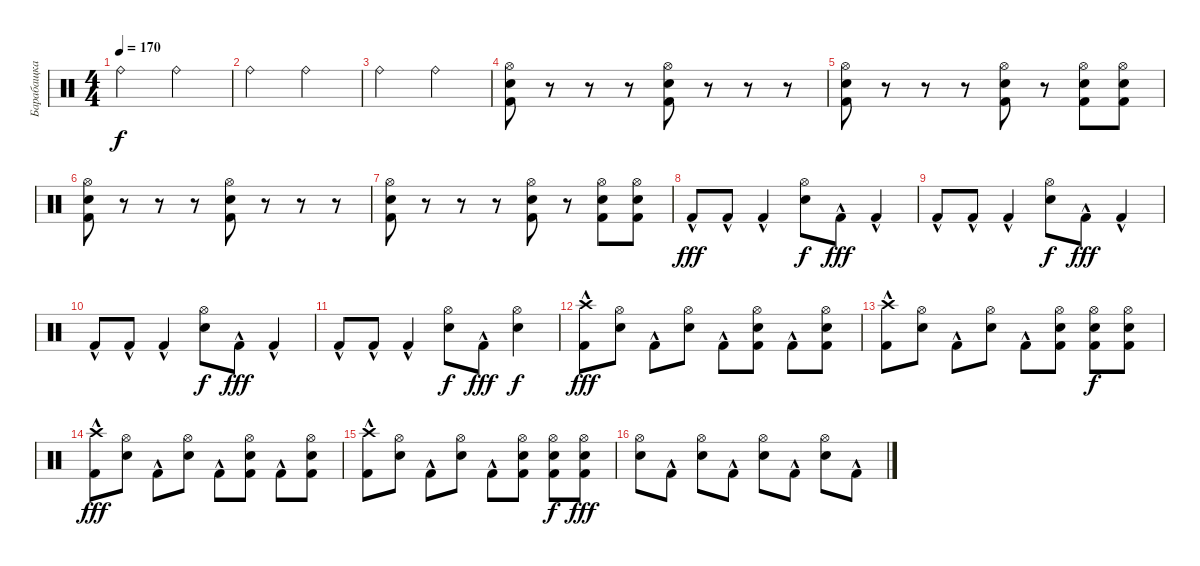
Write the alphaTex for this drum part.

\track ("Барабащка" "Барабащка") {instrument percussion}
\staff {score}
\articulation defaults
\ts (4 4)
\tempo 170
\clef neutral
\ks c "Ride (bell)".2{dy f} "Ride (bell)".2
|
"Ride (bell)".2 "Ride (bell)".2 |
"Ride (bell)".2 "Ride (bell)".2 |
("Hi-Hat (open)" "Snare (hit) 2" "Kick (hit) 2").8 r.8 r.8 r.8 ("Hi-Hat (open)" "Snare (hit) 2" "Kick (hit) 2").8 r.8 r.8 r.8 |
("Hi-Hat (open)" "Snare (hit) 2" "Kick (hit) 2").8 r.8 r.8 r.8 ("Hi-Hat (open)" "Snare (hit) 2" "Kick (hit) 2").8 r.8 ("Hi-Hat (open)" "Snare (hit) 2" "Kick (hit) 2").8 ("Hi-Hat (open)" "Snare (hit) 2" "Kick (hit) 2").8 |
("Hi-Hat (open)" "Snare (hit) 2" "Kick (hit) 2").8 r.8 r.8 r.8 ("Hi-Hat (open)" "Snare (hit) 2" "Kick (hit) 2").8 r.8 r.8 r.8 |
("Hi-Hat (open)" "Snare (hit) 2" "Kick (hit) 2").8 r.8 r.8 r.8 ("Hi-Hat (open)" "Snare (hit) 2" "Kick (hit) 2").8 r.8 ("Hi-Hat (open)" "Snare (hit) 2" "Kick (hit) 2").8 ("Hi-Hat (open)" "Snare (hit) 2" "Kick (hit) 2").8 |
"Kick (hit) 2"{hac}.8{dy fff} "Kick (hit) 2"{hac}.8 "Kick (hit) 2"{hac}.4 ("Hi-Hat (open)" "Snare (hit) 2").8{dy f} "Kick (hit) 2"{hac}.8{dy fff} "Kick (hit) 2"{hac}.4 |
"Kick (hit) 2"{hac}.8 "Kick (hit) 2"{hac}.8 "Kick (hit) 2"{hac}.4 ("Hi-Hat (open)" "Snare (hit) 2").8{dy f} "Kick (hit) 2"{hac}.8{dy fff} "Kick (hit) 2"{hac}.4 |
"Kick (hit) 2"{hac}.8 "Kick (hit) 2"{hac}.8 "Kick (hit) 2"{hac}.4 ("Hi-Hat (open)" "Snare (hit) 2").8{dy f} "Kick (hit) 2"{hac}.8{dy fff} "Kick (hit) 2"{hac}.4 |
"Kick (hit) 2"{hac}.8 "Kick (hit) 2"{hac}.8 "Kick (hit) 2"{hac}.4 ("Hi-Hat (open)" "Snare (hit) 2").8{dy f} "Kick (hit) 2"{hac}.8{dy fff} ("Hi-Hat (open)" "Snare (hit) 2").4{dy f} |
("Kick (hit) 2"{hac} "Crash high (hit)").8{dy fff} ("Snare (hit) 2" "Hi-Hat (open)").8 "Kick (hit) 2"{hac}.8 ("Snare (hit) 2" "Hi-Hat (open)").8 "Kick (hit) 2"{hac}.8 ("Snare (hit) 2" "Hi-Hat (open)" "Kick (hit) 2").8 "Kick (hit) 2"{hac}.8 ("Snare (hit) 2" "Hi-Hat (open)" "Kick (hit) 2").8 |
("Kick (hit) 2"{hac} "Crash high (hit)").8 ("Snare (hit) 2" "Hi-Hat (open)").8 "Kick (hit) 2"{hac}.8 ("Snare (hit) 2" "Hi-Hat (open)").8 "Kick (hit) 2"{hac}.8 ("Snare (hit) 2" "Hi-Hat (open)" "Kick (hit) 2").8 ("Hi-Hat (open)" "Snare (hit) 2" "Kick (hit) 2").8{dy f} ("Hi-Hat (open)" "Snare (hit) 2" "Kick (hit) 2").8 |
("Kick (hit) 2"{hac} "Crash high (hit)").8{dy fff} ("Snare (hit) 2" "Hi-Hat (open)").8 "Kick (hit) 2"{hac}.8 ("Snare (hit) 2" "Hi-Hat (open)").8 "Kick (hit) 2"{hac}.8 ("Snare (hit) 2" "Hi-Hat (open)" "Kick (hit) 2").8 "Kick (hit) 2"{hac}.8 ("Snare (hit) 2" "Hi-Hat (open)" "Kick (hit) 2").8 |
("Kick (hit) 2"{hac} "Crash high (hit)").8 ("Snare (hit) 2" "Hi-Hat (open)").8 "Kick (hit) 2"{hac}.8 ("Snare (hit) 2" "Hi-Hat (open)").8 "Kick (hit) 2"{hac}.8 ("Snare (hit) 2" "Hi-Hat (open)" "Kick (hit) 2").8 ("Hi-Hat (open)" "Snare (hit) 2" "Kick (hit) 2").8{dy f} ("Snare (hit) 2" "Hi-Hat (open)" "Kick (hit) 2").8{dy fff} |
("Snare (hit) 2" "Hi-Hat (open)").8 "Kick (hit) 2"{hac}.8 ("Snare (hit) 2" "Hi-Hat (open)").8 "Kick (hit) 2"{hac}.8 ("Snare (hit) 2" "Hi-Hat (open)").8 "Kick (hit) 2"{hac}.8 ("Snare (hit) 2" "Hi-Hat (open)").8 "Kick (hit) 2"{hac}.8
